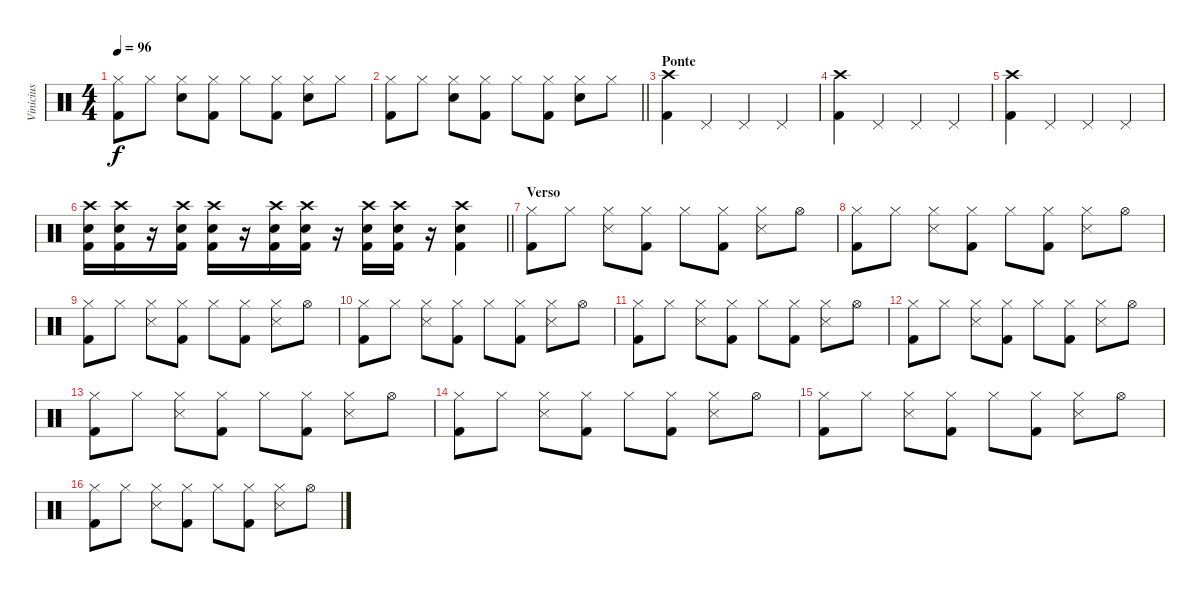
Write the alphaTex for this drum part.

\track ("Vinicius" "Vinicius") {instrument percussion}
\staff {score}
\articulation defaults
\ts (4 4)
\tempo 96
\clef neutral
\ks c
("Kick (hit) 2" "Hi-Hat (closed)").8{dy f} "Hi-Hat (closed)".8 ("Snare (hit) 2" "Hi-Hat (closed)").8 ("Kick (hit) 2" "Hi-Hat (closed)").8 "Hi-Hat (closed)".8 ("Kick (hit) 2" "Hi-Hat (closed)").8 ("Snare (hit) 2" "Hi-Hat (closed)").8 "Hi-Hat (closed)".8 |
\barLineRight lightlight
("Kick (hit) 2" "Hi-Hat (closed)").8 "Hi-Hat (closed)".8 ("Snare (hit) 2" "Hi-Hat (closed)").8 ("Kick (hit) 2" "Hi-Hat (closed)").8 "Hi-Hat (closed)".8 ("Kick (hit) 2" "Hi-Hat (closed)").8 ("Snare (hit) 2" "Hi-Hat (closed)").8 "Hi-Hat (closed)".8 |
\section ("" "Ponte")
("Kick (hit) 2" "Crash high (hit)").4 "Pedal Hi-Hat (hit)".4 "Pedal Hi-Hat (hit)".4 "Pedal Hi-Hat (hit)".4 |
("Kick (hit) 2" "Crash high (hit)").4 "Pedal Hi-Hat (hit)".4 "Pedal Hi-Hat (hit)".4 "Pedal Hi-Hat (hit)".4 |
("Kick (hit) 2" "Crash high (hit)").4 "Pedal Hi-Hat (hit)".4 "Pedal Hi-Hat (hit)".4 "Pedal Hi-Hat (hit)".4 |
\barLineRight lightlight
("Crash high (hit)" "Kick (hit) 2" "Snare (hit) 2").16 ("Crash high (hit)" "Kick (hit) 2" "Snare (hit) 2").16 r.16 ("Crash high (hit)" "Kick (hit) 2" "Snare (hit) 2").16 ("Crash high (hit)" "Kick (hit) 2" "Snare (hit) 2").16 r.16 ("Crash high (hit)" "Kick (hit) 2" "Snare (hit) 2").16 ("Crash high (hit)" "Kick (hit) 2" "Snare (hit) 2").16 r.16 ("Crash high (hit)" "Kick (hit) 2" "Snare (hit) 2").16 ("Crash high (hit)" "Kick (hit) 2" "Snare (hit) 2").16 r.16 ("Crash high (hit)" "Kick (hit) 2" "Snare (hit) 2").4 |
\section ("" "Verso")
("Kick (hit) 2" "Hi-Hat (closed)").8 "Hi-Hat (closed)".8 ("Snare (side stick) 3" "Hi-Hat (closed)").8 ("Kick (hit) 2" "Hi-Hat (closed)").8 "Hi-Hat (closed)".8 ("Kick (hit) 2" "Hi-Hat (closed)").8 ("Snare (side stick) 3" "Hi-Hat (closed)").8 "Hi-Hat (open)".8 |
("Kick (hit) 2" "Hi-Hat (closed)").8 "Hi-Hat (closed)".8 ("Snare (side stick) 3" "Hi-Hat (closed)").8 ("Kick (hit) 2" "Hi-Hat (closed)").8 "Hi-Hat (closed)".8 ("Kick (hit) 2" "Hi-Hat (closed)").8 ("Snare (side stick) 3" "Hi-Hat (closed)").8 "Hi-Hat (open)".8 |
("Kick (hit) 2" "Hi-Hat (closed)").8 "Hi-Hat (closed)".8 ("Snare (side stick) 3" "Hi-Hat (closed)").8 ("Kick (hit) 2" "Hi-Hat (closed)").8 "Hi-Hat (closed)".8 ("Kick (hit) 2" "Hi-Hat (closed)").8 ("Snare (side stick) 3" "Hi-Hat (closed)").8 "Hi-Hat (open)".8 |
("Kick (hit) 2" "Hi-Hat (closed)").8 "Hi-Hat (closed)".8 ("Snare (side stick) 3" "Hi-Hat (closed)").8 ("Kick (hit) 2" "Hi-Hat (closed)").8 "Hi-Hat (closed)".8 ("Kick (hit) 2" "Hi-Hat (closed)").8 ("Snare (side stick) 3" "Hi-Hat (closed)").8 "Hi-Hat (open)".8 |
("Kick (hit) 2" "Hi-Hat (closed)").8 "Hi-Hat (closed)".8 ("Snare (side stick) 3" "Hi-Hat (closed)").8 ("Kick (hit) 2" "Hi-Hat (closed)").8 "Hi-Hat (closed)".8 ("Kick (hit) 2" "Hi-Hat (closed)").8 ("Snare (side stick) 3" "Hi-Hat (closed)").8 "Hi-Hat (open)".8 |
("Kick (hit) 2" "Hi-Hat (closed)").8 "Hi-Hat (closed)".8 ("Snare (side stick) 3" "Hi-Hat (closed)").8 ("Kick (hit) 2" "Hi-Hat (closed)").8 "Hi-Hat (closed)".8 ("Kick (hit) 2" "Hi-Hat (closed)").8 ("Snare (side stick) 3" "Hi-Hat (closed)").8 "Hi-Hat (open)".8 |
("Kick (hit) 2" "Hi-Hat (closed)").8 "Hi-Hat (closed)".8 ("Snare (side stick) 3" "Hi-Hat (closed)").8 ("Kick (hit) 2" "Hi-Hat (closed)").8 "Hi-Hat (closed)".8 ("Kick (hit) 2" "Hi-Hat (closed)").8 ("Snare (side stick) 3" "Hi-Hat (closed)").8 "Hi-Hat (open)".8 |
("Kick (hit) 2" "Hi-Hat (closed)").8 "Hi-Hat (closed)".8 ("Snare (side stick) 3" "Hi-Hat (closed)").8 ("Kick (hit) 2" "Hi-Hat (closed)").8 "Hi-Hat (closed)".8 ("Kick (hit) 2" "Hi-Hat (closed)").8 ("Snare (side stick) 3" "Hi-Hat (closed)").8 "Hi-Hat (open)".8 |
("Kick (hit) 2" "Hi-Hat (closed)").8 "Hi-Hat (closed)".8 ("Snare (side stick) 3" "Hi-Hat (closed)").8 ("Kick (hit) 2" "Hi-Hat (closed)").8 "Hi-Hat (closed)".8 ("Kick (hit) 2" "Hi-Hat (closed)").8 ("Snare (side stick) 3" "Hi-Hat (closed)").8 "Hi-Hat (open)".8 |
("Kick (hit) 2" "Hi-Hat (closed)").8 "Hi-Hat (closed)".8 ("Snare (side stick) 3" "Hi-Hat (closed)").8 ("Kick (hit) 2" "Hi-Hat (closed)").8 "Hi-Hat (closed)".8 ("Kick (hit) 2" "Hi-Hat (closed)").8 ("Snare (side stick) 3" "Hi-Hat (closed)").8 "Hi-Hat (open)".8
